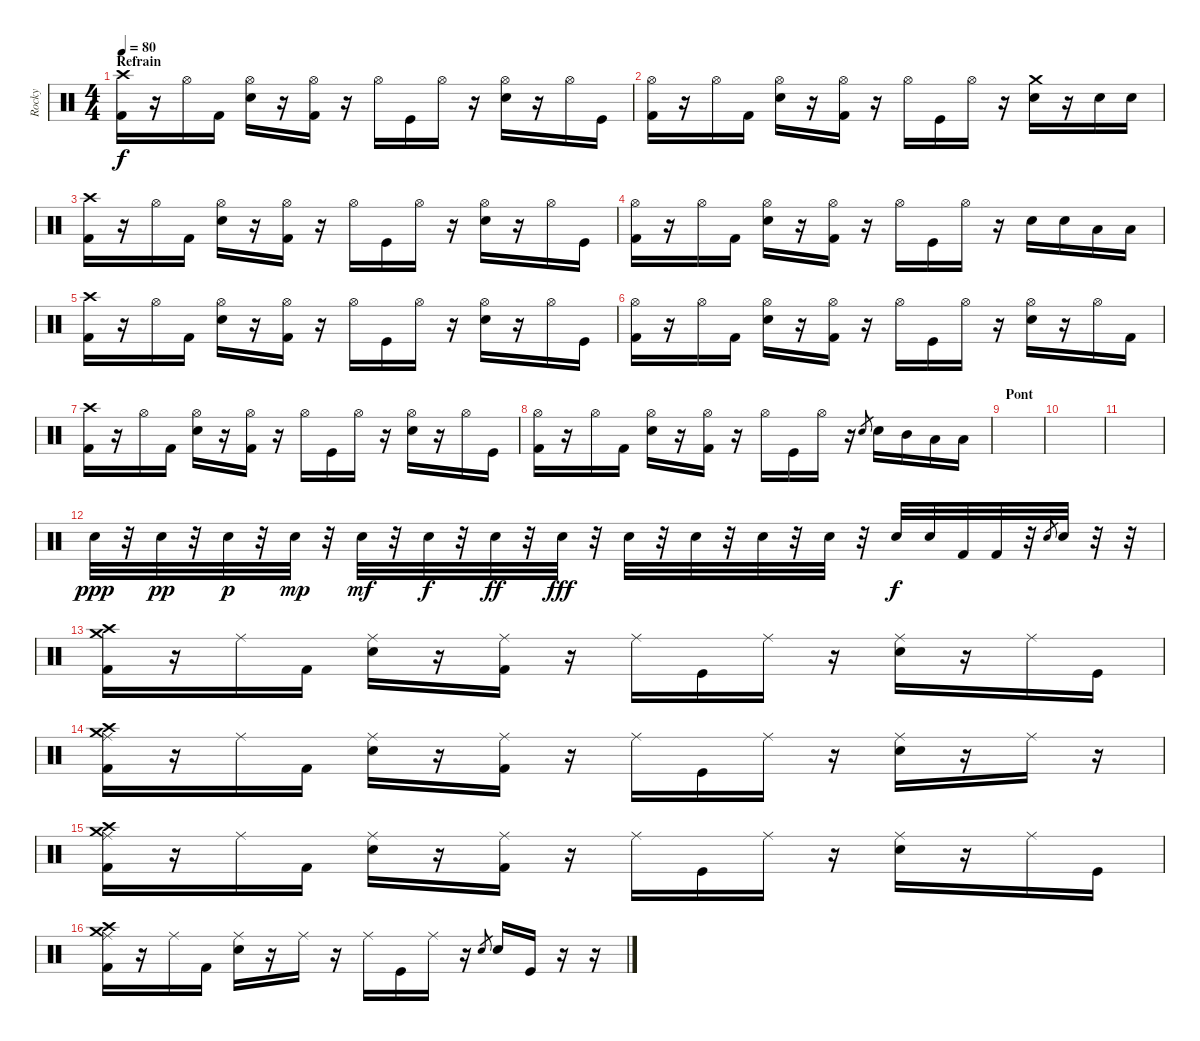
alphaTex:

\track ("Rocky" "Rocky") {instrument percussion}
\staff {score}
\articulation defaults
\ts (4 4)
\section ("" "Refrain")
\tempo 80
\clef neutral
\ks c
("Crash high (hit)" "Kick (hit) 2").16{dy f} r.16 "Hi-Hat (open)".16 "Kick (hit) 2".16 ("Hi-Hat (open)" "Electric Snare (hit)").16 r.16 ("Hi-Hat (open)" "Kick (hit) 2").16 r.16 "Hi-Hat (open)".16 "Kick (hit)".16 "Hi-Hat (open)".16 r.16 ("Hi-Hat (open)" "Electric Snare (hit)").16 r.16 "Hi-Hat (open)".16 "Kick (hit)".16 |
("Hi-Hat (open)" "Kick (hit) 2").16 r.16 "Hi-Hat (open)".16 "Kick (hit) 2".16 ("Hi-Hat (open)" "Electric Snare (hit)").16 r.16 ("Hi-Hat (open)" "Kick (hit) 2").16 r.16 "Hi-Hat (open)".16 "Kick (hit)".16 "Hi-Hat (open)".16 r.16 ("Crash medium (hit)" "Electric Snare (hit)").16 r.16 "Electric Snare (hit)".16 "Electric Snare (hit)".16 |
("Crash high (hit)" "Kick (hit) 2").16 r.16 "Hi-Hat (open)".16 "Kick (hit) 2".16 ("Hi-Hat (open)" "Electric Snare (hit)").16 r.16 ("Hi-Hat (open)" "Kick (hit) 2").16 r.16 "Hi-Hat (open)".16 "Kick (hit)".16 "Hi-Hat (open)".16 r.16 ("Hi-Hat (open)" "Electric Snare (hit)").16 r.16 "Hi-Hat (open)".16 "Kick (hit)".16 |
("Hi-Hat (open)" "Kick (hit) 2").16 r.16 "Hi-Hat (open)".16 "Kick (hit) 2".16 ("Hi-Hat (open)" "Electric Snare (hit)").16 r.16 ("Hi-Hat (open)" "Kick (hit) 2").16 r.16 "Hi-Hat (open)".16 "Kick (hit)".16 "Hi-Hat (open)".16 r.16 "Electric Snare (hit)".16 "Electric Snare (hit)".16 "Low Tom (hit)".16 "Low Tom (hit)".16 |
("Crash high (hit)" "Kick (hit) 2").16 r.16 "Hi-Hat (open)".16 "Kick (hit) 2".16 ("Hi-Hat (open)" "Electric Snare (hit)").16 r.16 ("Hi-Hat (open)" "Kick (hit) 2").16 r.16 "Hi-Hat (open)".16 "Kick (hit)".16 "Hi-Hat (open)".16 r.16 ("Hi-Hat (open)" "Electric Snare (hit)").16 r.16 "Hi-Hat (open)".16 "Kick (hit)".16 |
("Hi-Hat (open)" "Kick (hit) 2").16 r.16 "Hi-Hat (open)".16 "Kick (hit) 2".16 ("Hi-Hat (open)" "Electric Snare (hit)").16 r.16 ("Hi-Hat (open)" "Kick (hit) 2").16 r.16 "Hi-Hat (open)".16 "Kick (hit)".16 "Hi-Hat (open)".16 r.16 ("Hi-Hat (open)" "Electric Snare (hit)").16 r.16 "Hi-Hat (open)".16 "Kick (hit) 2".16 |
("Crash high (hit)" "Kick (hit) 2").16 r.16 "Hi-Hat (open)".16 "Kick (hit) 2".16 ("Hi-Hat (open)" "Electric Snare (hit)").16 r.16 ("Hi-Hat (open)" "Kick (hit) 2").16 r.16 "Hi-Hat (open)".16 "Kick (hit)".16 "Hi-Hat (open)".16 r.16 ("Hi-Hat (open)" "Electric Snare (hit)").16 r.16 "Hi-Hat (open)".16 "Kick (hit)".16 |
("Hi-Hat (open)" "Kick (hit) 2").16 r.16 "Hi-Hat (open)".16 "Kick (hit) 2".16 ("Hi-Hat (open)" "Electric Snare (hit)").16 r.16 ("Hi-Hat (open)" "Kick (hit) 2").16 r.16 "Hi-Hat (open)".16 "Kick (hit)".16 "Hi-Hat (open)".16 r.16 "Electric Snare (hit)".8{gr} "Electric Snare (hit)".16 "Mid Tom (hit)".16 "Low Tom (hit)".16 "Low Floor Tom (hit)".16 |
\section ("" "Pont")
|
|
|
"Electric Snare (hit)".32{dy ppp} r.32 "Electric Snare (hit)".32{dy pp} r.32 "Electric Snare (hit)".32{dy p} r.32 "Electric Snare (hit)".32{dy mp} r.32 "Electric Snare (hit)".32{dy mf} r.32 "Electric Snare (hit)".32{dy f} r.32 "Electric Snare (hit)".32{dy ff} r.32 "Electric Snare (hit)".32{dy fff} r.32 "Electric Snare (hit)".32 r.32 "Electric Snare (hit)".32 r.32 "Electric Snare (hit)".32 r.32 "Electric Snare (hit)".32 r.32 "Electric Snare (hit)".32{dy f} "Electric Snare (hit)".32 "Kick (hit) 2".32 "Kick (hit) 2".32 r.32 "Electric Snare (hit)".8{gr} "Electric Snare (hit)".32 r.32 r.32 |
("Crash high (hit)" "Kick (hit) 2" "Crash medium (hit)").16 r.16 "Ride (middle)".16 "Kick (hit) 2".16 ("Electric Snare (hit)" "Ride (middle)").16 r.16 ("Ride (middle)" "Kick (hit) 2").16 r.16 "Ride (middle)".16 "Kick (hit)".16 "Ride (middle)".16 r.16 ("Ride (middle)" "Electric Snare (hit)").16 r.16 "Ride (middle)".16 "Kick (hit)".16 |
("Crash high (hit)" "Crash medium (hit)" "Ride (middle)" "Kick (hit) 2").16 r.16 "Ride (middle)".16 "Kick (hit) 2".16 ("Electric Snare (hit)" "Ride (middle)").16 r.16 ("Ride (middle)" "Kick (hit) 2").16 r.16 "Ride (middle)".16 "Kick (hit)".16 "Ride (middle)".16 r.16 ("Ride (middle)" "Electric Snare (hit)").16 r.16 "Ride (middle)".16 r.16 |
("Crash high (hit)" "Kick (hit) 2" "Crash medium (hit)" "Ride (middle)").16 r.16 "Ride (middle)".16 "Kick (hit) 2".16 ("Electric Snare (hit)" "Ride (middle)").16 r.16 ("Kick (hit) 2" "Ride (middle)").16 r.16 "Ride (middle)".16 "Kick (hit)".16 "Ride (middle)".16 r.16 ("Electric Snare (hit)" "Ride (middle)").16 r.16 "Ride (middle)".16 "Kick (hit)".16 |
("Crash high (hit)" "Kick (hit) 2" "Ride (middle)" "Crash medium (hit)").16 r.16 "Ride (middle)".16 "Kick (hit) 2".16 ("Electric Snare (hit)" "Ride (middle)").16 r.16 "Ride (middle)".16 r.16 "Ride (middle)".16 "Kick (hit)".16 "Ride (middle)".16 r.16 "Electric Snare (hit)".8{gr} "Electric Snare (hit)".16 "Kick (hit)".16 r.16 r.16
